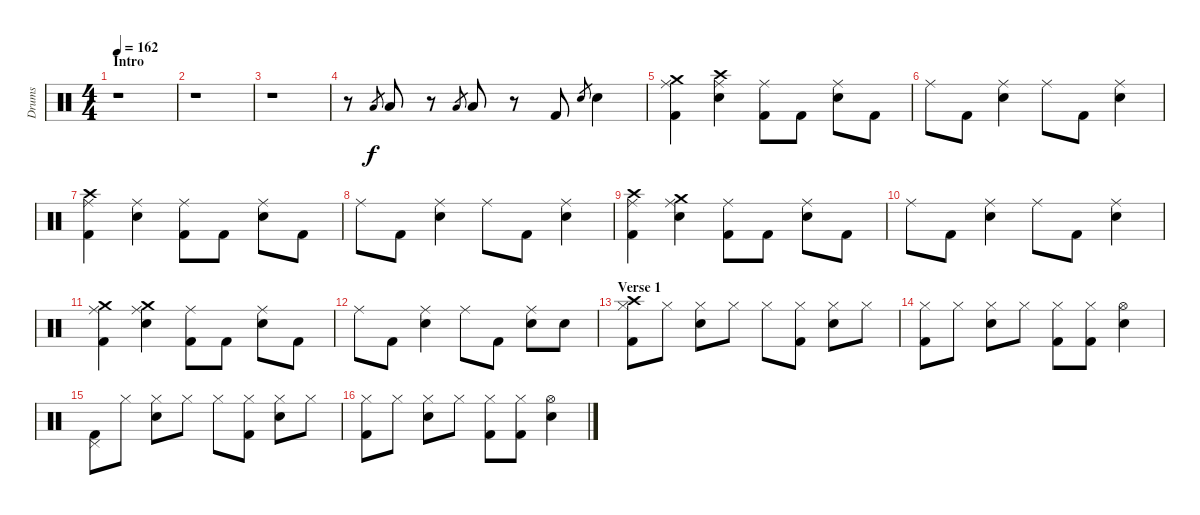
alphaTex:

\track ("Drums" "Drums") {instrument percussion}
\staff {score}
\articulation defaults
\ts (4 4)
\section ("" "Intro")
\tempo 162
\clef neutral
\ks c
r.1{dy f} |
r.1 |
r.1 |
r.8 "Low Tom (hit)".8{gr} "Low Tom (hit)".8 r.8 "Low Floor Tom (hit)".8{gr} "Low Floor Tom (hit)".8 r.8 "Kick (hit) 2".8 "Electric Snare (hit)".8{gr} "Electric Snare (hit)".4 |
("Crash medium (hit)" "Ride (middle)" "Kick (hit) 2").4 ("Crash high (hit)" "Ride (middle)" "Electric Snare (hit)").4 ("Ride (middle)" "Kick (hit) 2").8 "Kick (hit) 2".8 ("Ride (middle)" "Electric Snare (hit)").8 "Kick (hit) 2".8 |
"Ride (middle)".8 "Kick (hit) 2".8 ("Ride (middle)" "Electric Snare (hit)").4 "Ride (middle)".8 "Kick (hit) 2".8 ("Ride (middle)" "Electric Snare (hit)").4 |
("Crash high (hit)" "Ride (middle)" "Kick (hit) 2").4 ("Ride (middle)" "Electric Snare (hit)").4 ("Ride (middle)" "Kick (hit) 2").8 "Kick (hit) 2".8 ("Ride (middle)" "Electric Snare (hit)").8 "Kick (hit) 2".8 |
"Ride (middle)".8 "Kick (hit) 2".8 ("Ride (middle)" "Electric Snare (hit)").4 "Ride (middle)".8 "Kick (hit) 2".8 ("Ride (middle)" "Electric Snare (hit)").4 |
("Crash high (hit)" "Ride (middle)" "Kick (hit) 2").4 ("Crash medium (hit)" "Ride (middle)" "Electric Snare (hit)").4 ("Ride (middle)" "Kick (hit) 2").8 "Kick (hit) 2".8 ("Ride (middle)" "Electric Snare (hit)").8 "Kick (hit) 2".8 |
"Ride (middle)".8 "Kick (hit) 2".8 ("Ride (middle)" "Electric Snare (hit)").4 "Ride (middle)".8 "Kick (hit) 2".8 ("Ride (middle)" "Electric Snare (hit)").4 |
("Crash medium (hit)" "Ride (middle)" "Kick (hit) 2").4 ("Crash medium (hit)" "Ride (middle)" "Electric Snare (hit)").4 ("Ride (middle)" "Kick (hit) 2").8 "Kick (hit) 2".8 ("Ride (middle)" "Electric Snare (hit)").8 "Kick (hit) 2".8 |
"Ride (middle)".8 "Kick (hit) 2".8 ("Ride (middle)" "Electric Snare (hit)").4 "Ride (middle)".8 "Kick (hit) 2".8 ("Ride (middle)" "Electric Snare (hit)").8 "Electric Snare (hit)".8 |
\section ("" "Verse 1")
("Crash high (hit)" "Hi-Hat (closed)" "Kick (hit) 2").8 "Hi-Hat (closed)".8 ("Hi-Hat (closed)" "Electric Snare (hit)").8 "Hi-Hat (closed)".8 "Hi-Hat (closed)".8 ("Hi-Hat (closed)" "Kick (hit) 2").8 ("Hi-Hat (closed)" "Electric Snare (hit)").8 "Hi-Hat (closed)".8 |
("Hi-Hat (closed)" "Kick (hit) 2").8 "Hi-Hat (closed)".8 ("Hi-Hat (closed)" "Electric Snare (hit)").8 "Hi-Hat (closed)".8 ("Hi-Hat (closed)" "Kick (hit) 2").8 ("Hi-Hat (closed)" "Kick (hit) 2").8 ("Hi-Hat (open)" "Electric Snare (hit)").4 |
("Pedal Hi-Hat (hit)" "Kick (hit) 2").8 "Hi-Hat (closed)".8 ("Hi-Hat (closed)" "Electric Snare (hit)").8 "Hi-Hat (closed)".8 "Hi-Hat (closed)".8 ("Hi-Hat (closed)" "Kick (hit) 2").8 ("Hi-Hat (closed)" "Electric Snare (hit)").8 "Hi-Hat (closed)".8 |
("Hi-Hat (closed)" "Kick (hit) 2").8 "Hi-Hat (closed)".8 ("Hi-Hat (closed)" "Electric Snare (hit)").8 "Hi-Hat (closed)".8 ("Hi-Hat (closed)" "Kick (hit) 2").8 ("Hi-Hat (closed)" "Kick (hit) 2").8 ("Hi-Hat (open)" "Electric Snare (hit)").4
